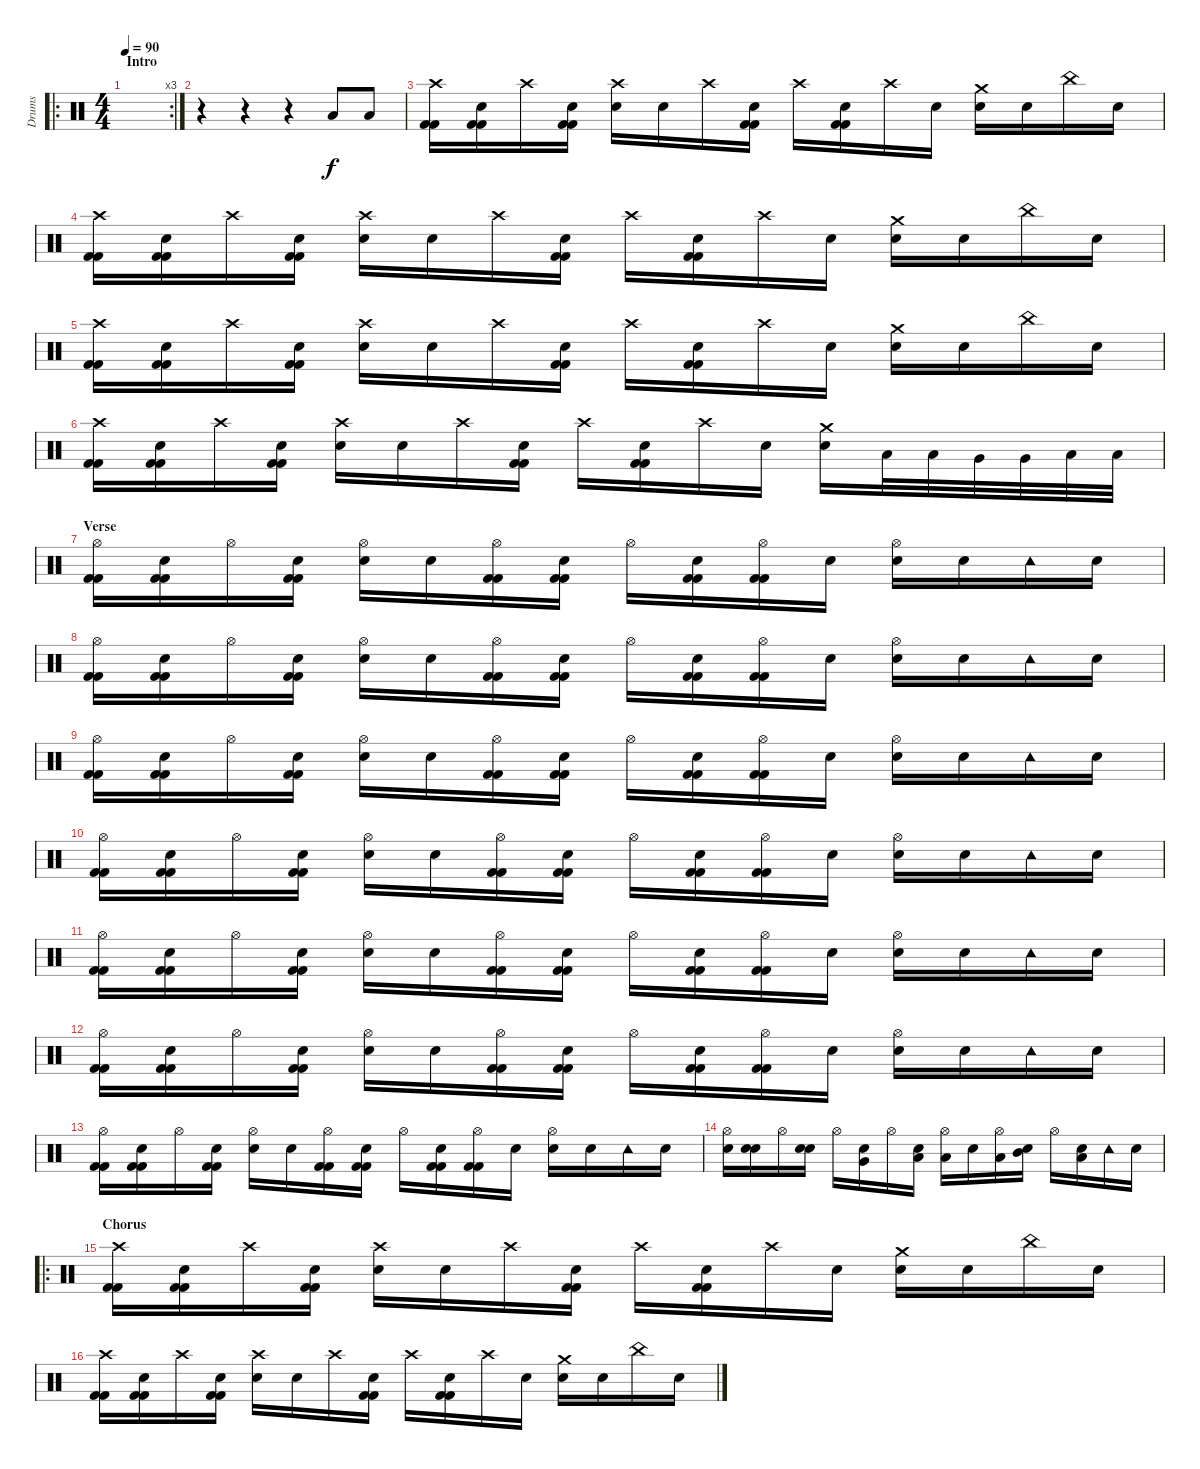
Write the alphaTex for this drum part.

\track ("Drums" "Drums") {instrument percussion}
\staff {score}
\articulation defaults
\ro
\rc 3
\ts (4 4)
\section ("" "Intro")
\tempo 90
\clef neutral
\ks c
|
r.4 r.4 r.4 "Low Tom (hit)".8 "Low Tom (hit)".8 |
("Crash high (hit)" "Kick (hit) 2" "Kick (hit) 2").16 ("Snare (hit)"{x} "Kick (hit) 2" "Kick (hit) 2").16 "Crash high (hit)".16 ("Snare (hit)"{x} "Kick (hit) 2" "Kick (hit) 2").16 ("Crash high (hit)" "Electric Snare (hit)").16 "Snare (hit)"{x}.16 "Crash high (hit)".16 ("Snare (hit)"{x} "Kick (hit) 2" "Kick (hit) 2").16 "Crash high (hit)".16 ("Snare (hit)"{x} "Kick (hit) 2" "Kick (hit) 2").16 "Crash high (hit)".16 "Snare (hit)"{x}.16 ("Crash medium (hit)" "Electric Snare (hit)").16 "Snare (hit)"{x}.16 "China (hit)".16 "Snare (hit)"{x}.16 |
("Crash high (hit)" "Kick (hit) 2" "Kick (hit) 2").16 ("Snare (hit)"{x} "Kick (hit) 2" "Kick (hit) 2").16 "Crash high (hit)".16 ("Snare (hit)"{x} "Kick (hit) 2" "Kick (hit) 2").16 ("Crash high (hit)" "Electric Snare (hit)").16 "Snare (hit)"{x}.16 "Crash high (hit)".16 ("Snare (hit)"{x} "Kick (hit) 2" "Kick (hit) 2").16 "Crash high (hit)".16 ("Snare (hit)"{x} "Kick (hit) 2" "Kick (hit) 2").16 "Crash high (hit)".16 "Snare (hit)"{x}.16 ("Crash medium (hit)" "Electric Snare (hit)").16 "Snare (hit)"{x}.16 "China (hit)".16 "Snare (hit)"{x}.16 |
("Crash high (hit)" "Kick (hit) 2" "Kick (hit) 2").16 ("Snare (hit)"{x} "Kick (hit) 2" "Kick (hit) 2").16 "Crash high (hit)".16 ("Snare (hit)"{x} "Kick (hit) 2" "Kick (hit) 2").16 ("Crash high (hit)" "Electric Snare (hit)").16 "Snare (hit)"{x}.16 "Crash high (hit)".16 ("Snare (hit)"{x} "Kick (hit) 2" "Kick (hit) 2").16 "Crash high (hit)".16 ("Snare (hit)"{x} "Kick (hit) 2" "Kick (hit) 2").16 "Crash high (hit)".16 "Snare (hit)"{x}.16 ("Crash medium (hit)" "Electric Snare (hit)").16 "Snare (hit)"{x}.16 "China (hit)".16 "Snare (hit)"{x}.16 |
("Crash high (hit)" "Kick (hit) 2" "Kick (hit) 2").16 ("Snare (hit)"{x} "Kick (hit) 2" "Kick (hit) 2").16 "Crash high (hit)".16 ("Snare (hit)"{x} "Kick (hit) 2" "Kick (hit) 2").16 ("Crash high (hit)" "Electric Snare (hit)").16 "Snare (hit)"{x}.16 "Crash high (hit)".16 ("Snare (hit)"{x} "Kick (hit) 2" "Kick (hit) 2").16 "Crash high (hit)".16 ("Snare (hit)"{x} "Kick (hit) 2" "Kick (hit) 2").16 "Crash high (hit)".16 "Snare (hit)"{x}.16 ("Crash medium (hit)" "Electric Snare (hit)").16 "Low Floor Tom (hit)".32 "Low Floor Tom (hit)".32 "Very Low Tom (hit)".32 "Very Low Tom (hit)".32 "Low Tom (hit)".32 "Low Tom (hit)".32 |
\section ("" "Verse")
("Hi-Hat (open)" "Kick (hit) 2" "Kick (hit) 2").16 ("Snare (hit)"{x} "Kick (hit) 2" "Kick (hit) 2").16 "Hi-Hat (open)".16 ("Snare (hit)"{x} "Kick (hit) 2" "Kick (hit) 2").16 ("Hi-Hat (open)" "Electric Snare (hit)").16 "Snare (hit)"{x}.16 ("Hi-Hat (open)" "Kick (hit) 2" "Kick (hit) 2").16 ("Snare (hit)"{x} "Kick (hit) 2" "Kick (hit) 2").16 "Hi-Hat (open)".16 ("Snare (hit)"{x} "Kick (hit) 2" "Kick (hit) 2").16 ("Hi-Hat (open)" "Kick (hit) 2" "Kick (hit) 2").16 "Snare (hit)"{x}.16 ("Hi-Hat (open)" "Electric Snare (hit)").16 "Snare (hit)"{x}.16 "Tambourine (hit)".16 "Snare (hit)"{x}.16 |
("Hi-Hat (open)" "Kick (hit) 2" "Kick (hit) 2").16 ("Snare (hit)"{x} "Kick (hit) 2" "Kick (hit) 2").16 "Hi-Hat (open)".16 ("Snare (hit)"{x} "Kick (hit) 2" "Kick (hit) 2").16 ("Hi-Hat (open)" "Electric Snare (hit)").16 "Snare (hit)"{x}.16 ("Hi-Hat (open)" "Kick (hit) 2" "Kick (hit) 2").16 ("Snare (hit)"{x} "Kick (hit) 2" "Kick (hit) 2").16 "Hi-Hat (open)".16 ("Snare (hit)"{x} "Kick (hit) 2" "Kick (hit) 2").16 ("Hi-Hat (open)" "Kick (hit) 2" "Kick (hit) 2").16 "Snare (hit)"{x}.16 ("Hi-Hat (open)" "Electric Snare (hit)").16 "Snare (hit)"{x}.16 "Tambourine (hit)".16 "Snare (hit)"{x}.16 |
("Hi-Hat (open)" "Kick (hit) 2" "Kick (hit) 2").16 ("Snare (hit)"{x} "Kick (hit) 2" "Kick (hit) 2").16 "Hi-Hat (open)".16 ("Snare (hit)"{x} "Kick (hit) 2" "Kick (hit) 2").16 ("Hi-Hat (open)" "Electric Snare (hit)").16 "Snare (hit)"{x}.16 ("Hi-Hat (open)" "Kick (hit) 2" "Kick (hit) 2").16 ("Snare (hit)"{x} "Kick (hit) 2" "Kick (hit) 2").16 "Hi-Hat (open)".16 ("Snare (hit)"{x} "Kick (hit) 2" "Kick (hit) 2").16 ("Hi-Hat (open)" "Kick (hit) 2" "Kick (hit) 2").16 "Snare (hit)"{x}.16 ("Hi-Hat (open)" "Electric Snare (hit)").16 "Snare (hit)"{x}.16 "Tambourine (hit)".16 "Snare (hit)"{x}.16 |
("Hi-Hat (open)" "Kick (hit) 2" "Kick (hit) 2").16 ("Snare (hit)"{x} "Kick (hit) 2" "Kick (hit) 2").16 "Hi-Hat (open)".16 ("Snare (hit)"{x} "Kick (hit) 2" "Kick (hit) 2").16 ("Hi-Hat (open)" "Electric Snare (hit)").16 "Snare (hit)"{x}.16 ("Hi-Hat (open)" "Kick (hit) 2" "Kick (hit) 2").16 ("Snare (hit)"{x} "Kick (hit) 2" "Kick (hit) 2").16 "Hi-Hat (open)".16 ("Snare (hit)"{x} "Kick (hit) 2" "Kick (hit) 2").16 ("Hi-Hat (open)" "Kick (hit) 2" "Kick (hit) 2").16 "Snare (hit)"{x}.16 ("Hi-Hat (open)" "Electric Snare (hit)").16 "Snare (hit)"{x}.16 "Tambourine (hit)".16 "Snare (hit)"{x}.16 |
("Hi-Hat (open)" "Kick (hit) 2" "Kick (hit) 2").16 ("Snare (hit)"{x} "Kick (hit) 2" "Kick (hit) 2").16 "Hi-Hat (open)".16 ("Snare (hit)"{x} "Kick (hit) 2" "Kick (hit) 2").16 ("Hi-Hat (open)" "Electric Snare (hit)").16 "Snare (hit)"{x}.16 ("Hi-Hat (open)" "Kick (hit) 2" "Kick (hit) 2").16 ("Snare (hit)"{x} "Kick (hit) 2" "Kick (hit) 2").16 "Hi-Hat (open)".16 ("Snare (hit)"{x} "Kick (hit) 2" "Kick (hit) 2").16 ("Hi-Hat (open)" "Kick (hit) 2" "Kick (hit) 2").16 "Snare (hit)"{x}.16 ("Hi-Hat (open)" "Electric Snare (hit)").16 "Snare (hit)"{x}.16 "Tambourine (hit)".16 "Snare (hit)"{x}.16 |
("Hi-Hat (open)" "Kick (hit) 2" "Kick (hit) 2").16 ("Snare (hit)"{x} "Kick (hit) 2" "Kick (hit) 2").16 "Hi-Hat (open)".16 ("Snare (hit)"{x} "Kick (hit) 2" "Kick (hit) 2").16 ("Hi-Hat (open)" "Electric Snare (hit)").16 "Snare (hit)"{x}.16 ("Hi-Hat (open)" "Kick (hit) 2" "Kick (hit) 2").16 ("Snare (hit)"{x} "Kick (hit) 2" "Kick (hit) 2").16 "Hi-Hat (open)".16 ("Snare (hit)"{x} "Kick (hit) 2" "Kick (hit) 2").16 ("Hi-Hat (open)" "Kick (hit) 2" "Kick (hit) 2").16 "Snare (hit)"{x}.16 ("Hi-Hat (open)" "Electric Snare (hit)").16 "Snare (hit)"{x}.16 "Tambourine (hit)".16 "Snare (hit)"{x}.16 |
("Hi-Hat (open)" "Kick (hit) 2" "Kick (hit) 2").16 ("Snare (hit)"{x} "Kick (hit) 2" "Kick (hit) 2").16 "Hi-Hat (open)".16 ("Snare (hit)"{x} "Kick (hit) 2" "Kick (hit) 2").16 ("Hi-Hat (open)" "Electric Snare (hit)").16 "Snare (hit)"{x}.16 ("Hi-Hat (open)" "Kick (hit) 2" "Kick (hit) 2").16 ("Snare (hit)"{x} "Kick (hit) 2" "Kick (hit) 2").16 "Hi-Hat (open)".16 ("Snare (hit)"{x} "Kick (hit) 2" "Kick (hit) 2").16 ("Hi-Hat (open)" "Kick (hit) 2" "Kick (hit) 2").16 "Snare (hit)"{x}.16 ("Hi-Hat (open)" "Electric Snare (hit)").16 "Snare (hit)"{x}.16 "Tambourine (hit)".16 "Snare (hit)"{x}.16 |
("Hi-Hat (open)"{x} "Electric Snare (hit)").16 ("Snare (hit)"{x} "Electric Snare (hit)").16 "Hi-Hat (open)"{x}.16 ("Snare (hit)"{x} "Electric Snare (hit)").16 "Hi-Hat (open)"{x}.16 ("Snare (hit)"{x} "Very Low Tom (hit)").16 "Hi-Hat (open)"{x}.16 ("Snare (hit)"{x} "Low Floor Tom (hit)").16 ("Hi-Hat (open)"{x} "Low Tom (hit)").16 "Snare (hit)"{x}.16 ("Hi-Hat (open)"{x} "Low Floor Tom (hit)").16 ("Snare (hit)"{x} "Mid Tom (hit)").16 "Hi-Hat (open)"{x}.16 ("Snare (hit)"{x} "Low Floor Tom (hit)").16 "Tambourine (hit)"{x}.16 "Snare (hit)"{x}.16 |
\ro
\section ("" "Chorus")
("Crash high (hit)" "Kick (hit) 2" "Kick (hit) 2").16 ("Snare (hit)"{x} "Kick (hit) 2" "Kick (hit) 2").16 "Crash high (hit)".16 ("Snare (hit)"{x} "Kick (hit) 2" "Kick (hit) 2").16 ("Crash high (hit)" "Electric Snare (hit)").16 "Snare (hit)"{x}.16 "Crash high (hit)".16 ("Snare (hit)"{x} "Kick (hit) 2" "Kick (hit) 2").16 "Crash high (hit)".16 ("Snare (hit)"{x} "Kick (hit) 2" "Kick (hit) 2").16 "Crash high (hit)".16 "Snare (hit)"{x}.16 ("Crash medium (hit)" "Electric Snare (hit)").16 "Snare (hit)"{x}.16 "China (hit)".16 "Snare (hit)"{x}.16 |
("Crash high (hit)" "Kick (hit) 2" "Kick (hit) 2").16 ("Snare (hit)"{x} "Kick (hit) 2" "Kick (hit) 2").16 "Crash high (hit)".16 ("Snare (hit)"{x} "Kick (hit) 2" "Kick (hit) 2").16 ("Crash high (hit)" "Electric Snare (hit)").16 "Snare (hit)"{x}.16 "Crash high (hit)".16 ("Snare (hit)"{x} "Kick (hit) 2" "Kick (hit) 2").16 "Crash high (hit)".16 ("Snare (hit)"{x} "Kick (hit) 2" "Kick (hit) 2").16 "Crash high (hit)".16 "Snare (hit)"{x}.16 ("Crash medium (hit)" "Electric Snare (hit)").16 "Snare (hit)"{x}.16 "China (hit)".16 "Snare (hit)"{x}.16
